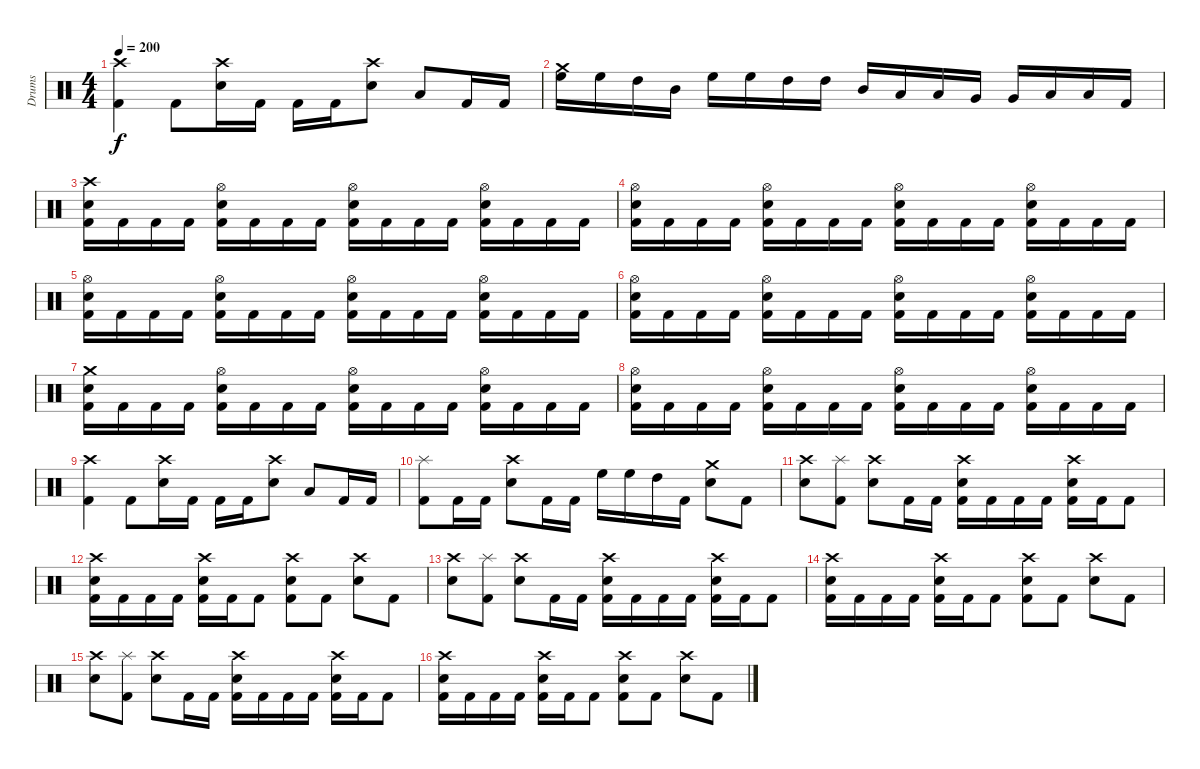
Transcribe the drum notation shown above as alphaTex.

\track ("Drums" "Drums") {instrument percussion}
\staff {score}
\articulation defaults
\ts (4 4)
\tempo 200
\clef neutral
\ks c
("Crash high (hit)" "Kick (hit) 2").4{dy f} "Kick (hit) 2".8 ("Crash high (hit)" "Electric Snare (hit)").16 "Kick (hit) 2".16 "Kick (hit) 2".16 "Kick (hit) 2".16 ("Crash high (hit)" "Electric Snare (hit)").8 "Low Floor Tom (hit)".8 "Kick (hit) 2".16 "Kick (hit) 2".16 |
("Crash medium (hit)" "High Floor Tom (hit)").16 "High Floor Tom (hit)".16 "High Tom (hit)".16 "Mid Tom (hit)".16 "High Floor Tom (hit)".16 "High Floor Tom (hit)".16 "High Tom (hit)".16 "High Tom (hit)".16 "Mid Tom (hit)".16 "Low Tom (hit)".16 "Low Tom (hit)".16 "Very Low Tom (hit)".16 "Very Low Tom (hit)".16 "Low Floor Tom (hit)".16 "Low Floor Tom (hit)".16 "Kick (hit) 2".16 |
("Crash high (hit)" "Electric Snare (hit)" "Kick (hit) 2").16 "Kick (hit) 2".16 "Kick (hit) 2".16 "Kick (hit) 2".16 ("Hi-Hat (open)" "Electric Snare (hit)" "Kick (hit) 2").16 "Kick (hit) 2".16 "Kick (hit) 2".16 "Kick (hit) 2".16 ("Hi-Hat (open)" "Electric Snare (hit)" "Kick (hit) 2").16 "Kick (hit) 2".16 "Kick (hit) 2".16 "Kick (hit) 2".16 ("Hi-Hat (open)" "Electric Snare (hit)" "Kick (hit) 2").16 "Kick (hit) 2".16 "Kick (hit) 2".16 "Kick (hit) 2".16 |
("Hi-Hat (open)" "Electric Snare (hit)" "Kick (hit) 2").16 "Kick (hit) 2".16 "Kick (hit) 2".16 "Kick (hit) 2".16 ("Hi-Hat (open)" "Electric Snare (hit)" "Kick (hit) 2").16 "Kick (hit) 2".16 "Kick (hit) 2".16 "Kick (hit) 2".16 ("Hi-Hat (open)" "Electric Snare (hit)" "Kick (hit) 2").16 "Kick (hit) 2".16 "Kick (hit) 2".16 "Kick (hit) 2".16 ("Hi-Hat (open)" "Electric Snare (hit)" "Kick (hit) 2").16 "Kick (hit) 2".16 "Kick (hit) 2".16 "Kick (hit) 2".16 |
("Hi-Hat (open)" "Electric Snare (hit)" "Kick (hit) 2").16 "Kick (hit) 2".16 "Kick (hit) 2".16 "Kick (hit) 2".16 ("Hi-Hat (open)" "Electric Snare (hit)" "Kick (hit) 2").16 "Kick (hit) 2".16 "Kick (hit) 2".16 "Kick (hit) 2".16 ("Hi-Hat (open)" "Electric Snare (hit)" "Kick (hit) 2").16 "Kick (hit) 2".16 "Kick (hit) 2".16 "Kick (hit) 2".16 ("Hi-Hat (open)" "Electric Snare (hit)" "Kick (hit) 2").16 "Kick (hit) 2".16 "Kick (hit) 2".16 "Kick (hit) 2".16 |
("Hi-Hat (open)" "Electric Snare (hit)" "Kick (hit) 2").16 "Kick (hit) 2".16 "Kick (hit) 2".16 "Kick (hit) 2".16 ("Hi-Hat (open)" "Electric Snare (hit)" "Kick (hit) 2").16 "Kick (hit) 2".16 "Kick (hit) 2".16 "Kick (hit) 2".16 ("Hi-Hat (open)" "Electric Snare (hit)" "Kick (hit) 2").16 "Kick (hit) 2".16 "Kick (hit) 2".16 "Kick (hit) 2".16 ("Hi-Hat (open)" "Electric Snare (hit)" "Kick (hit) 2").16 "Kick (hit) 2".16 "Kick (hit) 2".16 "Kick (hit) 2".16 |
("Crash medium (hit)" "Electric Snare (hit)" "Kick (hit) 2").16 "Kick (hit) 2".16 "Kick (hit) 2".16 "Kick (hit) 2".16 ("Hi-Hat (open)" "Electric Snare (hit)" "Kick (hit) 2").16 "Kick (hit) 2".16 "Kick (hit) 2".16 "Kick (hit) 2".16 ("Hi-Hat (open)" "Electric Snare (hit)" "Kick (hit) 2").16 "Kick (hit) 2".16 "Kick (hit) 2".16 "Kick (hit) 2".16 ("Hi-Hat (open)" "Electric Snare (hit)" "Kick (hit) 2").16 "Kick (hit) 2".16 "Kick (hit) 2".16 "Kick (hit) 2".16 |
("Hi-Hat (open)" "Electric Snare (hit)" "Kick (hit) 2").16 "Kick (hit) 2".16 "Kick (hit) 2".16 "Kick (hit) 2".16 ("Hi-Hat (open)" "Electric Snare (hit)" "Kick (hit) 2").16 "Kick (hit) 2".16 "Kick (hit) 2".16 "Kick (hit) 2".16 ("Hi-Hat (open)" "Electric Snare (hit)" "Kick (hit) 2").16 "Kick (hit) 2".16 "Kick (hit) 2".16 "Kick (hit) 2".16 ("Hi-Hat (open)" "Electric Snare (hit)" "Kick (hit) 2").16 "Kick (hit) 2".16 "Kick (hit) 2".16 "Kick (hit) 2".16 |
("Crash high (hit)" "Kick (hit) 2").4 "Kick (hit) 2".8 ("Crash high (hit)" "Electric Snare (hit)").16 "Kick (hit) 2".16 "Kick (hit) 2".16 "Kick (hit) 2".16 ("Crash high (hit)" "Electric Snare (hit)").8 "Low Floor Tom (hit)".8 "Kick (hit) 2".16 "Kick (hit) 2".16 |
("Splash (hit)" "Kick (hit) 2").8 "Kick (hit) 2".16 "Kick (hit) 2".16 ("Crash high (hit)" "Electric Snare (hit)").8 "Kick (hit) 2".16 "Kick (hit) 2".16 "High Floor Tom (hit)".16 "High Floor Tom (hit)".16 "High Tom (hit)".16 "Kick (hit) 2".16 ("Crash medium (hit)" "Electric Snare (hit)").8 "Kick (hit) 2".8 |
("Crash high (hit)" "Electric Snare (hit)").8 ("Splash (hit)" "Kick (hit) 2").8 ("Crash high (hit)" "Electric Snare (hit)").8 "Kick (hit) 2".16 "Kick (hit) 2".16 ("Crash high (hit)" "Electric Snare (hit)" "Kick (hit) 2").16 "Kick (hit) 2".16 "Kick (hit) 2".16 "Kick (hit) 2".16 ("Crash high (hit)" "Electric Snare (hit)" "Kick (hit) 2").16 "Kick (hit) 2".16 "Kick (hit) 2".8 |
("Crash high (hit)" "Electric Snare (hit)" "Kick (hit) 2").16 "Kick (hit) 2".16 "Kick (hit) 2".16 "Kick (hit) 2".16 ("Crash high (hit)" "Electric Snare (hit)" "Kick (hit) 2").16 "Kick (hit) 2".16 "Kick (hit) 2".8 ("Crash high (hit)" "Electric Snare (hit)" "Kick (hit) 2").8 "Kick (hit) 2".8 ("Crash high (hit)" "Electric Snare (hit)").8 "Kick (hit) 2".8 |
("Crash high (hit)" "Electric Snare (hit)").8 ("Splash (hit)" "Kick (hit) 2").8 ("Crash high (hit)" "Electric Snare (hit)").8 "Kick (hit) 2".16 "Kick (hit) 2".16 ("Crash high (hit)" "Electric Snare (hit)" "Kick (hit) 2").16 "Kick (hit) 2".16 "Kick (hit) 2".16 "Kick (hit) 2".16 ("Crash high (hit)" "Electric Snare (hit)" "Kick (hit) 2").16 "Kick (hit) 2".16 "Kick (hit) 2".8 |
("Crash high (hit)" "Electric Snare (hit)" "Kick (hit) 2").16 "Kick (hit) 2".16 "Kick (hit) 2".16 "Kick (hit) 2".16 ("Crash high (hit)" "Electric Snare (hit)" "Kick (hit) 2").16 "Kick (hit) 2".16 "Kick (hit) 2".8 ("Crash high (hit)" "Electric Snare (hit)" "Kick (hit) 2").8 "Kick (hit) 2".8 ("Crash high (hit)" "Electric Snare (hit)").8 "Kick (hit) 2".8 |
("Crash high (hit)" "Electric Snare (hit)").8 ("Splash (hit)" "Kick (hit) 2").8 ("Crash high (hit)" "Electric Snare (hit)").8 "Kick (hit) 2".16 "Kick (hit) 2".16 ("Crash high (hit)" "Electric Snare (hit)" "Kick (hit) 2").16 "Kick (hit) 2".16 "Kick (hit) 2".16 "Kick (hit) 2".16 ("Crash high (hit)" "Electric Snare (hit)" "Kick (hit) 2").16 "Kick (hit) 2".16 "Kick (hit) 2".8 |
("Crash high (hit)" "Electric Snare (hit)" "Kick (hit) 2").16 "Kick (hit) 2".16 "Kick (hit) 2".16 "Kick (hit) 2".16 ("Crash high (hit)" "Electric Snare (hit)" "Kick (hit) 2").16 "Kick (hit) 2".16 "Kick (hit) 2".8 ("Crash high (hit)" "Electric Snare (hit)" "Kick (hit) 2").8 "Kick (hit) 2".8 ("Crash high (hit)" "Electric Snare (hit)").8 "Kick (hit) 2".8
